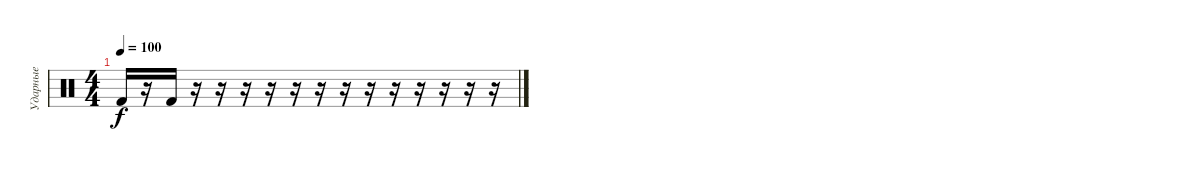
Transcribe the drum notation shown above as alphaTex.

\track ("Ударные" "Ударные") {instrument percussion}
\staff {score}
\articulation defaults
\ts (4 4)
\tempo 100
\clef neutral
\ks c "Kick (hit) 2".16{dy f}
r.16 "Kick (hit) 2".16 r.16 r.16 r.16 r.16 r.16 r.16 r.16 r.16 r.16 r.16 r.16 r.16 r.16
